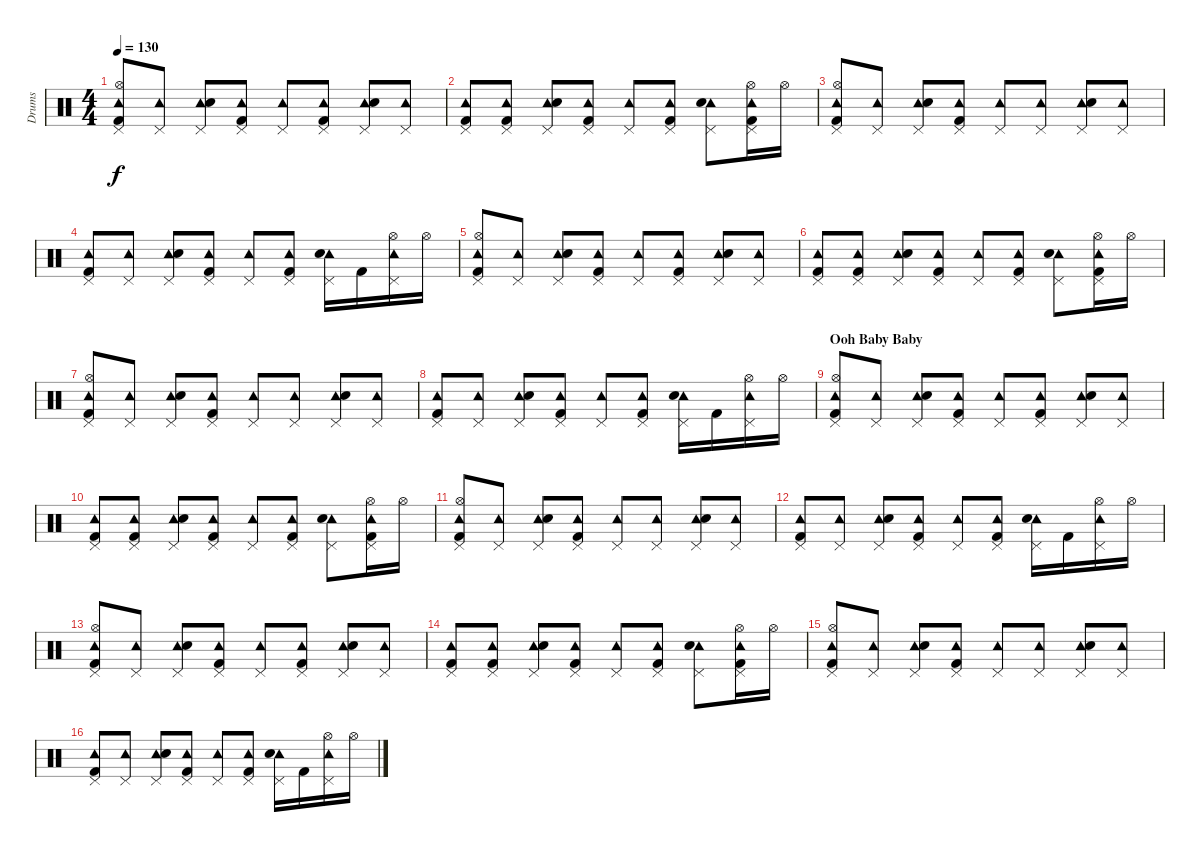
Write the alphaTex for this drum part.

\track ("Drums" "Drums") {instrument percussion}
\staff {score}
\articulation defaults
\ts (4 4)
\tempo 130
\clef neutral
\ks c
("Tambourine (hit)" "Pedal Hi-Hat (hit)" "Hi-Hat (open)" "Kick (hit) 2").8{dy f} ("Tambourine (hit)" "Pedal Hi-Hat (hit)").8 ("Tambourine (hit)" "Pedal Hi-Hat (hit)" "Electric Snare (hit)").8 ("Tambourine (hit)" "Pedal Hi-Hat (hit)" "Kick (hit) 2").8 ("Tambourine (hit)" "Pedal Hi-Hat (hit)").8 ("Tambourine (hit)" "Pedal Hi-Hat (hit)" "Kick (hit) 2").8 ("Tambourine (hit)" "Pedal Hi-Hat (hit)" "Electric Snare (hit)").8 ("Tambourine (hit)" "Pedal Hi-Hat (hit)").8 |
("Tambourine (hit)" "Pedal Hi-Hat (hit)" "Kick (hit) 2").8 ("Tambourine (hit)" "Pedal Hi-Hat (hit)" "Kick (hit) 2").8 ("Tambourine (hit)" "Pedal Hi-Hat (hit)" "Electric Snare (hit)").8 ("Tambourine (hit)" "Pedal Hi-Hat (hit)" "Kick (hit) 2").8 ("Tambourine (hit)" "Pedal Hi-Hat (hit)").8 ("Tambourine (hit)" "Pedal Hi-Hat (hit)" "Kick (hit) 2").8 ("Tambourine (hit)" "Pedal Hi-Hat (hit)" "Electric Snare (hit)").8 ("Tambourine (hit)" "Pedal Hi-Hat (hit)" "Hi-Hat (open)" "Kick (hit) 2").16 "Hi-Hat (open)".16 |
("Tambourine (hit)" "Pedal Hi-Hat (hit)" "Hi-Hat (open)" "Kick (hit) 2").8 ("Tambourine (hit)" "Pedal Hi-Hat (hit)").8 ("Tambourine (hit)" "Pedal Hi-Hat (hit)" "Electric Snare (hit)").8 ("Tambourine (hit)" "Pedal Hi-Hat (hit)" "Kick (hit) 2").8 ("Tambourine (hit)" "Pedal Hi-Hat (hit)").8 ("Tambourine (hit)" "Pedal Hi-Hat (hit)").8 ("Tambourine (hit)" "Pedal Hi-Hat (hit)" "Electric Snare (hit)").8 ("Tambourine (hit)" "Pedal Hi-Hat (hit)").8 |
("Tambourine (hit)" "Pedal Hi-Hat (hit)" "Kick (hit) 2").8 ("Tambourine (hit)" "Pedal Hi-Hat (hit)").8 ("Tambourine (hit)" "Pedal Hi-Hat (hit)" "Electric Snare (hit)").8 ("Tambourine (hit)" "Pedal Hi-Hat (hit)" "Kick (hit) 2").8 ("Tambourine (hit)" "Pedal Hi-Hat (hit)").8 ("Tambourine (hit)" "Pedal Hi-Hat (hit)" "Kick (hit) 2").8 ("Tambourine (hit)" "Pedal Hi-Hat (hit)" "Electric Snare (hit)").16 "Kick (hit) 2".16 ("Tambourine (hit)" "Pedal Hi-Hat (hit)" "Hi-Hat (open)").16 "Hi-Hat (open)".16 |
("Tambourine (hit)" "Pedal Hi-Hat (hit)" "Hi-Hat (open)" "Kick (hit) 2").8 ("Tambourine (hit)" "Pedal Hi-Hat (hit)").8 ("Tambourine (hit)" "Pedal Hi-Hat (hit)" "Electric Snare (hit)").8 ("Tambourine (hit)" "Pedal Hi-Hat (hit)" "Kick (hit) 2").8 ("Tambourine (hit)" "Pedal Hi-Hat (hit)").8 ("Tambourine (hit)" "Pedal Hi-Hat (hit)" "Kick (hit) 2").8 ("Tambourine (hit)" "Pedal Hi-Hat (hit)" "Electric Snare (hit)").8 ("Tambourine (hit)" "Pedal Hi-Hat (hit)").8 |
("Tambourine (hit)" "Pedal Hi-Hat (hit)" "Kick (hit) 2").8 ("Tambourine (hit)" "Pedal Hi-Hat (hit)" "Kick (hit) 2").8 ("Tambourine (hit)" "Pedal Hi-Hat (hit)" "Electric Snare (hit)").8 ("Tambourine (hit)" "Pedal Hi-Hat (hit)" "Kick (hit) 2").8 ("Tambourine (hit)" "Pedal Hi-Hat (hit)").8 ("Tambourine (hit)" "Pedal Hi-Hat (hit)" "Kick (hit) 2").8 ("Tambourine (hit)" "Pedal Hi-Hat (hit)" "Electric Snare (hit)").8 ("Tambourine (hit)" "Pedal Hi-Hat (hit)" "Hi-Hat (open)" "Kick (hit) 2").16 "Hi-Hat (open)".16 |
("Tambourine (hit)" "Pedal Hi-Hat (hit)" "Hi-Hat (open)" "Kick (hit) 2").8 ("Tambourine (hit)" "Pedal Hi-Hat (hit)").8 ("Tambourine (hit)" "Pedal Hi-Hat (hit)" "Electric Snare (hit)").8 ("Tambourine (hit)" "Pedal Hi-Hat (hit)" "Kick (hit) 2").8 ("Tambourine (hit)" "Pedal Hi-Hat (hit)").8 ("Tambourine (hit)" "Pedal Hi-Hat (hit)").8 ("Tambourine (hit)" "Pedal Hi-Hat (hit)" "Electric Snare (hit)").8 ("Tambourine (hit)" "Pedal Hi-Hat (hit)").8 |
("Tambourine (hit)" "Pedal Hi-Hat (hit)" "Kick (hit) 2").8 ("Tambourine (hit)" "Pedal Hi-Hat (hit)").8 ("Tambourine (hit)" "Pedal Hi-Hat (hit)" "Electric Snare (hit)").8 ("Tambourine (hit)" "Pedal Hi-Hat (hit)" "Kick (hit) 2").8 ("Tambourine (hit)" "Pedal Hi-Hat (hit)").8 ("Tambourine (hit)" "Pedal Hi-Hat (hit)" "Kick (hit) 2").8 ("Tambourine (hit)" "Pedal Hi-Hat (hit)" "Electric Snare (hit)").16 "Kick (hit) 2".16 ("Tambourine (hit)" "Pedal Hi-Hat (hit)" "Hi-Hat (open)").16 "Hi-Hat (open)".16 |
\section ("" "Ooh Baby Baby")
("Tambourine (hit)" "Pedal Hi-Hat (hit)" "Hi-Hat (open)" "Kick (hit) 2").8 ("Tambourine (hit)" "Pedal Hi-Hat (hit)").8 ("Tambourine (hit)" "Pedal Hi-Hat (hit)" "Electric Snare (hit)").8 ("Tambourine (hit)" "Pedal Hi-Hat (hit)" "Kick (hit) 2").8 ("Tambourine (hit)" "Pedal Hi-Hat (hit)").8 ("Tambourine (hit)" "Pedal Hi-Hat (hit)" "Kick (hit) 2").8 ("Tambourine (hit)" "Pedal Hi-Hat (hit)" "Electric Snare (hit)").8 ("Tambourine (hit)" "Pedal Hi-Hat (hit)").8 |
("Tambourine (hit)" "Pedal Hi-Hat (hit)" "Kick (hit) 2").8 ("Tambourine (hit)" "Pedal Hi-Hat (hit)" "Kick (hit) 2").8 ("Tambourine (hit)" "Pedal Hi-Hat (hit)" "Electric Snare (hit)").8 ("Tambourine (hit)" "Pedal Hi-Hat (hit)" "Kick (hit) 2").8 ("Tambourine (hit)" "Pedal Hi-Hat (hit)").8 ("Tambourine (hit)" "Pedal Hi-Hat (hit)" "Kick (hit) 2").8 ("Tambourine (hit)" "Pedal Hi-Hat (hit)" "Electric Snare (hit)").8 ("Tambourine (hit)" "Pedal Hi-Hat (hit)" "Hi-Hat (open)" "Kick (hit) 2").16 "Hi-Hat (open)".16 |
("Tambourine (hit)" "Pedal Hi-Hat (hit)" "Hi-Hat (open)" "Kick (hit) 2").8 ("Tambourine (hit)" "Pedal Hi-Hat (hit)").8 ("Tambourine (hit)" "Pedal Hi-Hat (hit)" "Electric Snare (hit)").8 ("Tambourine (hit)" "Pedal Hi-Hat (hit)" "Kick (hit) 2").8 ("Tambourine (hit)" "Pedal Hi-Hat (hit)").8 ("Tambourine (hit)" "Pedal Hi-Hat (hit)").8 ("Tambourine (hit)" "Pedal Hi-Hat (hit)" "Electric Snare (hit)").8 ("Tambourine (hit)" "Pedal Hi-Hat (hit)").8 |
("Tambourine (hit)" "Pedal Hi-Hat (hit)" "Kick (hit) 2").8 ("Tambourine (hit)" "Pedal Hi-Hat (hit)").8 ("Tambourine (hit)" "Pedal Hi-Hat (hit)" "Electric Snare (hit)").8 ("Tambourine (hit)" "Pedal Hi-Hat (hit)" "Kick (hit) 2").8 ("Tambourine (hit)" "Pedal Hi-Hat (hit)").8 ("Tambourine (hit)" "Pedal Hi-Hat (hit)" "Kick (hit) 2").8 ("Tambourine (hit)" "Pedal Hi-Hat (hit)" "Electric Snare (hit)").16 "Kick (hit) 2".16 ("Tambourine (hit)" "Pedal Hi-Hat (hit)" "Hi-Hat (open)").16 "Hi-Hat (open)".16 |
("Tambourine (hit)" "Pedal Hi-Hat (hit)" "Hi-Hat (open)" "Kick (hit) 2").8 ("Tambourine (hit)" "Pedal Hi-Hat (hit)").8 ("Tambourine (hit)" "Pedal Hi-Hat (hit)" "Electric Snare (hit)").8 ("Tambourine (hit)" "Pedal Hi-Hat (hit)" "Kick (hit) 2").8 ("Tambourine (hit)" "Pedal Hi-Hat (hit)").8 ("Tambourine (hit)" "Pedal Hi-Hat (hit)" "Kick (hit) 2").8 ("Tambourine (hit)" "Pedal Hi-Hat (hit)" "Electric Snare (hit)").8 ("Tambourine (hit)" "Pedal Hi-Hat (hit)").8 |
("Tambourine (hit)" "Pedal Hi-Hat (hit)" "Kick (hit) 2").8 ("Tambourine (hit)" "Pedal Hi-Hat (hit)" "Kick (hit) 2").8 ("Tambourine (hit)" "Pedal Hi-Hat (hit)" "Electric Snare (hit)").8 ("Tambourine (hit)" "Pedal Hi-Hat (hit)" "Kick (hit) 2").8 ("Tambourine (hit)" "Pedal Hi-Hat (hit)").8 ("Tambourine (hit)" "Pedal Hi-Hat (hit)" "Kick (hit) 2").8 ("Tambourine (hit)" "Pedal Hi-Hat (hit)" "Electric Snare (hit)").8 ("Tambourine (hit)" "Pedal Hi-Hat (hit)" "Hi-Hat (open)" "Kick (hit) 2").16 "Hi-Hat (open)".16 |
("Tambourine (hit)" "Pedal Hi-Hat (hit)" "Hi-Hat (open)" "Kick (hit) 2").8 ("Tambourine (hit)" "Pedal Hi-Hat (hit)").8 ("Tambourine (hit)" "Pedal Hi-Hat (hit)" "Electric Snare (hit)").8 ("Tambourine (hit)" "Pedal Hi-Hat (hit)" "Kick (hit) 2").8 ("Tambourine (hit)" "Pedal Hi-Hat (hit)").8 ("Tambourine (hit)" "Pedal Hi-Hat (hit)").8 ("Tambourine (hit)" "Pedal Hi-Hat (hit)" "Electric Snare (hit)").8 ("Tambourine (hit)" "Pedal Hi-Hat (hit)").8 |
("Tambourine (hit)" "Pedal Hi-Hat (hit)" "Kick (hit) 2").8 ("Tambourine (hit)" "Pedal Hi-Hat (hit)").8 ("Tambourine (hit)" "Pedal Hi-Hat (hit)" "Electric Snare (hit)").8 ("Tambourine (hit)" "Pedal Hi-Hat (hit)" "Kick (hit) 2").8 ("Tambourine (hit)" "Pedal Hi-Hat (hit)").8 ("Tambourine (hit)" "Pedal Hi-Hat (hit)" "Kick (hit) 2").8 ("Tambourine (hit)" "Pedal Hi-Hat (hit)" "Electric Snare (hit)").16 "Kick (hit) 2".16 ("Tambourine (hit)" "Pedal Hi-Hat (hit)" "Hi-Hat (open)").16 "Hi-Hat (open)".16
